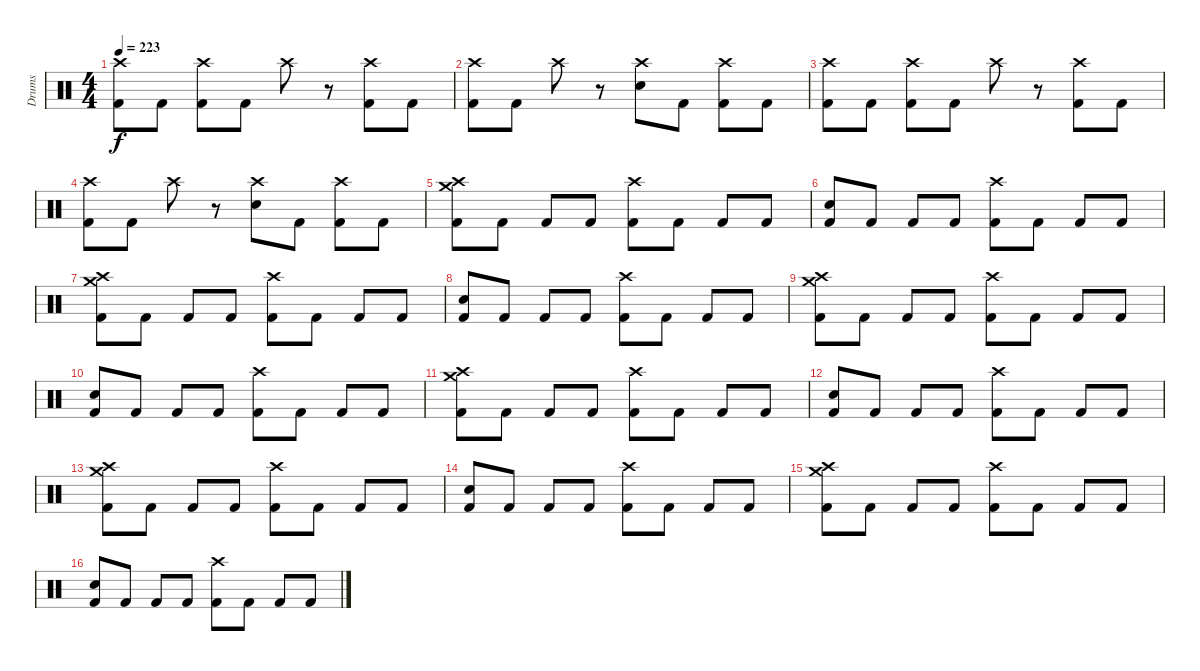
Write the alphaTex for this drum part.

\track ("Drums" "Drums") {instrument percussion bank 177}
\staff {score}
\articulation defaults
\ts (4 4)
\tempo 223
\clef neutral
\ks c
("Crash high (hit)" "Kick (hit) 2").8{dy f} "Kick (hit) 2".8 ("Crash high (hit)" "Kick (hit) 2").8 "Kick (hit) 2".8 "Crash high (hit)".8 r.8 ("Crash high (hit)" "Kick (hit) 2").8 "Kick (hit) 2".8 |
("Crash high (hit)" "Kick (hit) 2").8 "Kick (hit) 2".8 "Crash high (hit)".8 r.8 ("Crash high (hit)" "Electric Snare (hit)").8 "Kick (hit) 2".8 ("Crash high (hit)" "Kick (hit) 2").8 "Kick (hit) 2".8 |
("Crash high (hit)" "Kick (hit) 2").8 "Kick (hit) 2".8 ("Crash high (hit)" "Kick (hit) 2").8 "Kick (hit) 2".8 "Crash high (hit)".8 r.8 ("Crash high (hit)" "Kick (hit) 2").8 "Kick (hit) 2".8 |
("Crash high (hit)" "Kick (hit) 2").8 "Kick (hit) 2".8 "Crash high (hit)".8 r.8 ("Crash high (hit)" "Electric Snare (hit)").8 "Kick (hit) 2".8 ("Crash high (hit)" "Kick (hit) 2").8 "Kick (hit) 2".8 |
("Crash high (hit)" "Crash medium (hit)" "Kick (hit) 2").8 "Kick (hit) 2".8 "Kick (hit) 2".8 "Kick (hit) 2".8 ("Crash high (hit)" "Kick (hit) 2").8 "Kick (hit) 2".8 "Kick (hit) 2".8 "Kick (hit) 2".8 |
("Electric Snare (hit)" "Kick (hit) 2").8 "Kick (hit) 2".8 "Kick (hit) 2".8 "Kick (hit) 2".8 ("Crash high (hit)" "Kick (hit) 2").8 "Kick (hit) 2".8 "Kick (hit) 2".8 "Kick (hit) 2".8 |
("Crash high (hit)" "Crash medium (hit)" "Kick (hit) 2").8 "Kick (hit) 2".8 "Kick (hit) 2".8 "Kick (hit) 2".8 ("Crash high (hit)" "Kick (hit) 2").8 "Kick (hit) 2".8 "Kick (hit) 2".8 "Kick (hit) 2".8 |
("Electric Snare (hit)" "Kick (hit) 2").8 "Kick (hit) 2".8 "Kick (hit) 2".8 "Kick (hit) 2".8 ("Crash high (hit)" "Kick (hit) 2").8 "Kick (hit) 2".8 "Kick (hit) 2".8 "Kick (hit) 2".8 |
("Crash high (hit)" "Crash medium (hit)" "Kick (hit) 2").8 "Kick (hit) 2".8 "Kick (hit) 2".8 "Kick (hit) 2".8 ("Crash high (hit)" "Kick (hit) 2").8 "Kick (hit) 2".8 "Kick (hit) 2".8 "Kick (hit) 2".8 |
("Electric Snare (hit)" "Kick (hit) 2").8 "Kick (hit) 2".8 "Kick (hit) 2".8 "Kick (hit) 2".8 ("Crash high (hit)" "Kick (hit) 2").8 "Kick (hit) 2".8 "Kick (hit) 2".8 "Kick (hit) 2".8 |
("Crash high (hit)" "Crash medium (hit)" "Kick (hit) 2").8 "Kick (hit) 2".8 "Kick (hit) 2".8 "Kick (hit) 2".8 ("Crash high (hit)" "Kick (hit) 2").8 "Kick (hit) 2".8 "Kick (hit) 2".8 "Kick (hit) 2".8 |
("Electric Snare (hit)" "Kick (hit) 2").8 "Kick (hit) 2".8 "Kick (hit) 2".8 "Kick (hit) 2".8 ("Crash high (hit)" "Kick (hit) 2").8 "Kick (hit) 2".8 "Kick (hit) 2".8 "Kick (hit) 2".8 |
("Crash high (hit)" "Crash medium (hit)" "Kick (hit) 2").8 "Kick (hit) 2".8 "Kick (hit) 2".8 "Kick (hit) 2".8 ("Crash high (hit)" "Kick (hit) 2").8 "Kick (hit) 2".8 "Kick (hit) 2".8 "Kick (hit) 2".8 |
("Electric Snare (hit)" "Kick (hit) 2").8 "Kick (hit) 2".8 "Kick (hit) 2".8 "Kick (hit) 2".8 ("Crash high (hit)" "Kick (hit) 2").8 "Kick (hit) 2".8 "Kick (hit) 2".8 "Kick (hit) 2".8 |
("Crash high (hit)" "Crash medium (hit)" "Kick (hit) 2").8 "Kick (hit) 2".8 "Kick (hit) 2".8 "Kick (hit) 2".8 ("Crash high (hit)" "Kick (hit) 2").8 "Kick (hit) 2".8 "Kick (hit) 2".8 "Kick (hit) 2".8 |
("Electric Snare (hit)" "Kick (hit) 2").8 "Kick (hit) 2".8 "Kick (hit) 2".8 "Kick (hit) 2".8 ("Crash high (hit)" "Kick (hit) 2").8 "Kick (hit) 2".8 "Kick (hit) 2".8 "Kick (hit) 2".8
